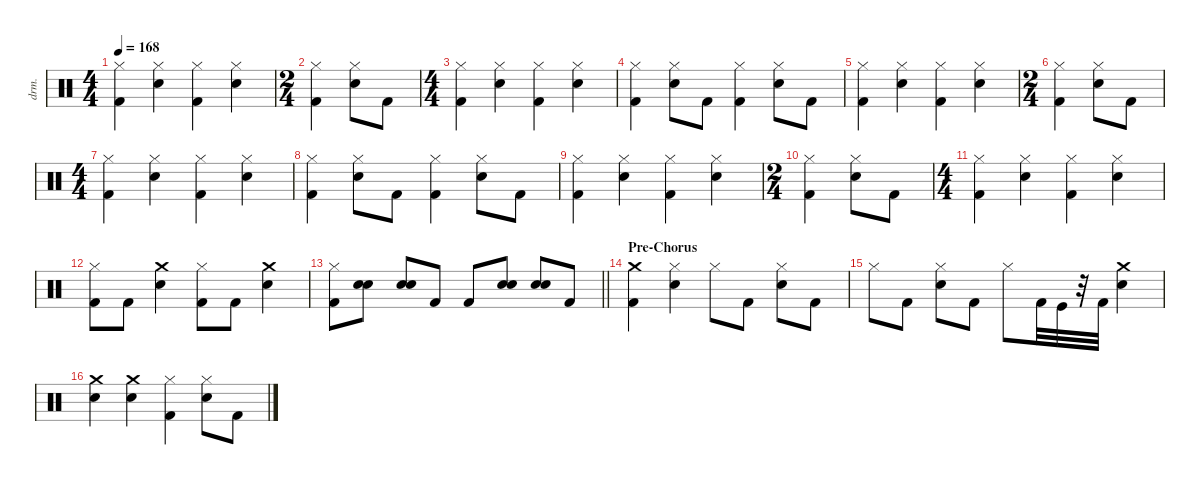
\defaultSystemsLayout 4
\hideDynamics
\bracketExtendMode nobrackets
\otherSystemsTrackNameOrientation horizontal
\track ("Drums" "drm.") {instrument percussion}
\staff {score}
\articulation defaults
\ts (4 4)
\tempo 168
\clef neutral
\ks c
("Hi-Hat (closed)" "Kick (hit) 2").4{dy fff} ("Hi-Hat (closed)" "Snare (hit) 2").4 ("Hi-Hat (closed)" "Kick (hit) 2").4 ("Snare (hit) 2" "Hi-Hat (closed)").4 |
\ts (2 4)
\beaming (8 2 2)
("Hi-Hat (closed)" "Kick (hit) 2").4 ("Snare (hit) 2" "Hi-Hat (closed)").8 "Kick (hit) 2".8 |
\ts (4 4)
\beaming (8 2 2 2 2)
("Kick (hit) 2" "Hi-Hat (closed)").4 ("Snare (hit) 2" "Hi-Hat (closed)").4 ("Kick (hit) 2" "Hi-Hat (closed)").4 ("Snare (hit) 2" "Hi-Hat (closed)").4 |
("Hi-Hat (closed)" "Kick (hit) 2").4 ("Snare (hit) 2" "Hi-Hat (closed)").8 "Kick (hit) 2".8 ("Kick (hit) 2" "Hi-Hat (closed)").4 ("Hi-Hat (closed)" "Snare (hit) 2").8 "Kick (hit) 2".8 |
("Hi-Hat (closed)" "Kick (hit) 2").4 ("Hi-Hat (closed)" "Snare (hit) 2").4 ("Hi-Hat (closed)" "Kick (hit) 2").4 ("Snare (hit) 2" "Hi-Hat (closed)").4 |
\ts (2 4)
\beaming (8 2 2)
("Hi-Hat (closed)" "Kick (hit) 2").4 ("Snare (hit) 2" "Hi-Hat (closed)").8 "Kick (hit) 2".8 |
\ts (4 4)
\beaming (8 2 2 2 2)
("Kick (hit) 2" "Hi-Hat (closed)").4 ("Snare (hit) 2" "Hi-Hat (closed)").4 ("Kick (hit) 2" "Hi-Hat (closed)").4 ("Snare (hit) 2" "Hi-Hat (closed)").4 |
("Hi-Hat (closed)" "Kick (hit) 2").4 ("Snare (hit) 2" "Hi-Hat (closed)").8 "Kick (hit) 2".8 ("Kick (hit) 2" "Hi-Hat (closed)").4 ("Hi-Hat (closed)" "Snare (hit) 2").8 "Kick (hit) 2".8 |
("Hi-Hat (closed)" "Kick (hit) 2").4 ("Hi-Hat (closed)" "Snare (hit) 2").4 ("Hi-Hat (closed)" "Kick (hit) 2").4 ("Snare (hit) 2" "Hi-Hat (closed)").4 |
\ts (2 4)
\beaming (8 2 2)
("Hi-Hat (closed)" "Kick (hit) 2").4 ("Snare (hit) 2" "Hi-Hat (closed)").8 "Kick (hit) 2".8 |
\ts (4 4)
\beaming (8 2 2 2 2)
("Kick (hit) 2" "Hi-Hat (closed)").4 ("Snare (hit) 2" "Hi-Hat (closed)").4 ("Kick (hit) 2" "Hi-Hat (closed)").4 ("Snare (hit) 2" "Hi-Hat (closed)").4 |
("Kick (hit) 2" "Hi-Hat (closed)").8 "Kick (hit) 2".8 ("Crash medium (hit)" "Snare (hit) 2").4 ("Kick (hit) 2" "Hi-Hat (closed)").8 "Kick (hit) 2".8 ("Crash medium (hit)" "Snare (hit) 2").4 |
\barLineRight lightlight
("Kick (hit) 2" "Hi-Hat (closed)").8 ("Snare (hit) 2" "Snare (hit) 2").8{dy f} ("Snare (hit) 2" "Snare (hit) 2").8 "Kick (hit) 2".8{dy fff} "Kick (hit) 2".8 ("Snare (hit) 2" "Snare (hit) 2").8{dy f} ("Snare (hit) 2" "Snare (hit) 2").8 "Kick (hit) 2".8{dy fff} |
\section ("" "Pre-Chorus")
("Kick (hit) 2" "Crash medium (hit)").4 ("Hi-Hat (closed)" "Snare (hit) 2").4 "Hi-Hat (closed)".8 "Kick (hit) 2".8 ("Snare (hit) 2" "Hi-Hat (closed)").8 "Kick (hit) 2".8 |
"Hi-Hat (closed)".8 "Kick (hit) 2".8 ("Snare (hit) 2" "Hi-Hat (closed)").8 "Kick (hit) 2".8 "Hi-Hat (closed)".8 "Kick (hit) 2".32 "Kick (hit)".32 r.32 "Kick (hit) 2".32 ("Crash medium (hit)" "Snare (hit) 2").4 |
("Crash medium (hit)" "Snare (hit) 2").4 ("Crash medium (hit)" "Snare (hit) 2").4 ("Hi-Hat (closed)" "Kick (hit) 2").4 ("Snare (hit) 2" "Hi-Hat (closed)").8 "Kick (hit) 2".8
